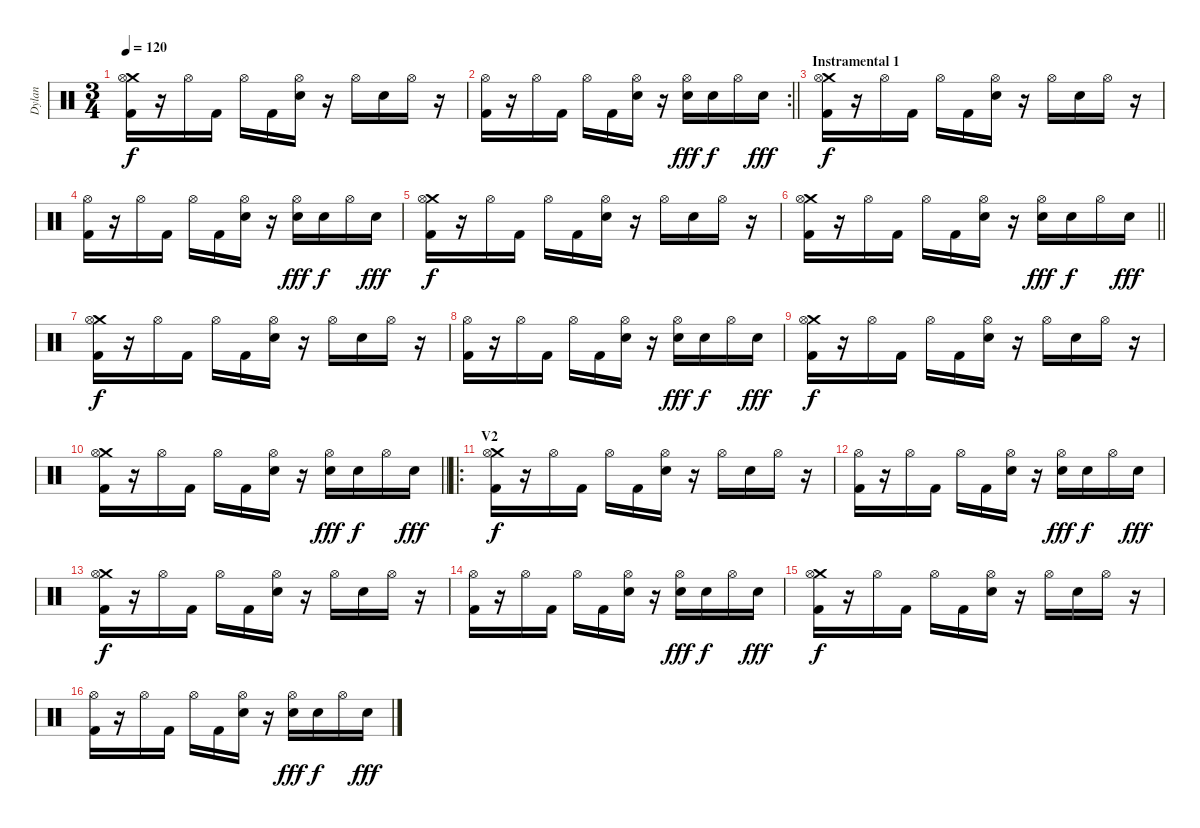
\track ("Dylan" "Dylan") {instrument percussion}
\staff {score}
\articulation defaults
\ts (3 4)
\tempo 120
\clef neutral
\ks c
("Crash medium (hit)" "Hi-Hat (open)" "Kick (hit) 2").16{dy f} r.16 "Hi-Hat (open)".16 "Kick (hit) 2".16 "Hi-Hat (open)".16 "Kick (hit) 2".16 ("Hi-Hat (open)" "Electric Snare (hit)").16 r.16 "Hi-Hat (open)".16 "Electric Snare (hit)".16 "Hi-Hat (open)".16 r.16 |
\rc 2
\barLineRight lightlight
("Hi-Hat (open)" "Kick (hit) 2").16 r.16 "Hi-Hat (open)".16 "Kick (hit) 2".16 "Hi-Hat (open)".16 "Kick (hit) 2".16 ("Hi-Hat (open)" "Electric Snare (hit)").16 r.16 ("Hi-Hat (open)" "Electric Snare (hit)").16{dy fff} "Electric Snare (hit)".16{dy f} "Hi-Hat (open)".16 "Electric Snare (hit)".16{dy fff} |
\section ("" "Instramental 1")
("Crash medium (hit)" "Hi-Hat (open)" "Kick (hit) 2").16{dy f} r.16 "Hi-Hat (open)".16 "Kick (hit) 2".16 "Hi-Hat (open)".16 "Kick (hit) 2".16 ("Hi-Hat (open)" "Electric Snare (hit)").16 r.16 "Hi-Hat (open)".16 "Electric Snare (hit)".16 "Hi-Hat (open)".16 r.16 |
("Hi-Hat (open)" "Kick (hit) 2").16 r.16 "Hi-Hat (open)".16 "Kick (hit) 2".16 "Hi-Hat (open)".16 "Kick (hit) 2".16 ("Hi-Hat (open)" "Electric Snare (hit)").16 r.16 ("Hi-Hat (open)" "Electric Snare (hit)").16{dy fff} "Electric Snare (hit)".16{dy f} "Hi-Hat (open)".16 "Electric Snare (hit)".16{dy fff} |
("Crash medium (hit)" "Hi-Hat (open)" "Kick (hit) 2").16{dy f} r.16 "Hi-Hat (open)".16 "Kick (hit) 2".16 "Hi-Hat (open)".16 "Kick (hit) 2".16 ("Hi-Hat (open)" "Electric Snare (hit)").16 r.16 "Hi-Hat (open)".16 "Electric Snare (hit)".16 "Hi-Hat (open)".16 r.16 |
\barLineRight lightlight
("Crash medium (hit)" "Hi-Hat (open)" "Kick (hit) 2").16 r.16 "Hi-Hat (open)".16 "Kick (hit) 2".16 "Hi-Hat (open)".16 "Kick (hit) 2".16 ("Hi-Hat (open)" "Electric Snare (hit)").16 r.16 ("Hi-Hat (open)" "Electric Snare (hit)").16{dy fff} "Electric Snare (hit)".16{dy f} "Hi-Hat (open)".16 "Electric Snare (hit)".16{dy fff} |
("Crash medium (hit)" "Hi-Hat (open)" "Kick (hit) 2").16{dy f} r.16 "Hi-Hat (open)".16 "Kick (hit) 2".16 "Hi-Hat (open)".16 "Kick (hit) 2".16 ("Hi-Hat (open)" "Electric Snare (hit)").16 r.16 "Hi-Hat (open)".16 "Electric Snare (hit)".16 "Hi-Hat (open)".16 r.16 |
("Hi-Hat (open)" "Kick (hit) 2").16 r.16 "Hi-Hat (open)".16 "Kick (hit) 2".16 "Hi-Hat (open)".16 "Kick (hit) 2".16 ("Hi-Hat (open)" "Electric Snare (hit)").16 r.16 ("Hi-Hat (open)" "Electric Snare (hit)").16{dy fff} "Electric Snare (hit)".16{dy f} "Hi-Hat (open)".16 "Electric Snare (hit)".16{dy fff} |
("Crash medium (hit)" "Hi-Hat (open)" "Kick (hit) 2").16{dy f} r.16 "Hi-Hat (open)".16 "Kick (hit) 2".16 "Hi-Hat (open)".16 "Kick (hit) 2".16 ("Hi-Hat (open)" "Electric Snare (hit)").16 r.16 "Hi-Hat (open)".16 "Electric Snare (hit)".16 "Hi-Hat (open)".16 r.16 |
\barLineRight lightlight
("Crash medium (hit)" "Hi-Hat (open)" "Kick (hit) 2").16 r.16 "Hi-Hat (open)".16 "Kick (hit) 2".16 "Hi-Hat (open)".16 "Kick (hit) 2".16 ("Hi-Hat (open)" "Electric Snare (hit)").16 r.16 ("Hi-Hat (open)" "Electric Snare (hit)").16{dy fff} "Electric Snare (hit)".16{dy f} "Hi-Hat (open)".16 "Electric Snare (hit)".16{dy fff} |
\ro
\section ("" "V2")
("Crash medium (hit)" "Hi-Hat (open)" "Kick (hit) 2").16{dy f} r.16 "Hi-Hat (open)".16 "Kick (hit) 2".16 "Hi-Hat (open)".16 "Kick (hit) 2".16 ("Hi-Hat (open)" "Electric Snare (hit)").16 r.16 "Hi-Hat (open)".16 "Electric Snare (hit)".16 "Hi-Hat (open)".16 r.16 |
("Hi-Hat (open)" "Kick (hit) 2").16 r.16 "Hi-Hat (open)".16 "Kick (hit) 2".16 "Hi-Hat (open)".16 "Kick (hit) 2".16 ("Hi-Hat (open)" "Electric Snare (hit)").16 r.16 ("Hi-Hat (open)" "Electric Snare (hit)").16{dy fff} "Electric Snare (hit)".16{dy f} "Hi-Hat (open)".16 "Electric Snare (hit)".16{dy fff} |
("Crash medium (hit)" "Hi-Hat (open)" "Kick (hit) 2").16{dy f} r.16 "Hi-Hat (open)".16 "Kick (hit) 2".16 "Hi-Hat (open)".16 "Kick (hit) 2".16 ("Hi-Hat (open)" "Electric Snare (hit)").16 r.16 "Hi-Hat (open)".16 "Electric Snare (hit)".16 "Hi-Hat (open)".16 r.16 |
("Hi-Hat (open)" "Kick (hit) 2").16 r.16 "Hi-Hat (open)".16 "Kick (hit) 2".16 "Hi-Hat (open)".16 "Kick (hit) 2".16 ("Hi-Hat (open)" "Electric Snare (hit)").16 r.16 ("Hi-Hat (open)" "Electric Snare (hit)").16{dy fff} "Electric Snare (hit)".16{dy f} "Hi-Hat (open)".16 "Electric Snare (hit)".16{dy fff} |
("Crash medium (hit)" "Hi-Hat (open)" "Kick (hit) 2").16{dy f} r.16 "Hi-Hat (open)".16 "Kick (hit) 2".16 "Hi-Hat (open)".16 "Kick (hit) 2".16 ("Hi-Hat (open)" "Electric Snare (hit)").16 r.16 "Hi-Hat (open)".16 "Electric Snare (hit)".16 "Hi-Hat (open)".16 r.16 |
("Hi-Hat (open)" "Kick (hit) 2").16 r.16 "Hi-Hat (open)".16 "Kick (hit) 2".16 "Hi-Hat (open)".16 "Kick (hit) 2".16 ("Hi-Hat (open)" "Electric Snare (hit)").16 r.16 ("Hi-Hat (open)" "Electric Snare (hit)").16{dy fff} "Electric Snare (hit)".16{dy f} "Hi-Hat (open)".16 "Electric Snare (hit)".16{dy fff}
